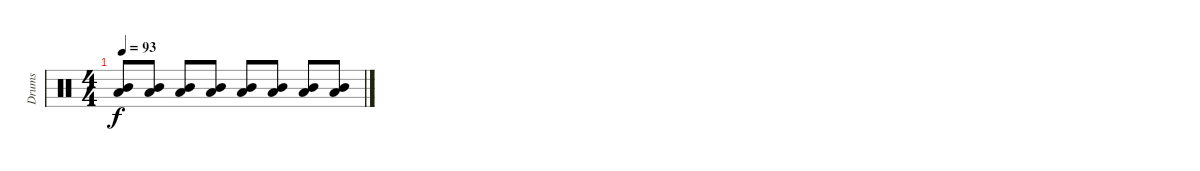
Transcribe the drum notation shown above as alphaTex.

\track ("Drums" "Drums") {instrument percussion}
\staff {score}
\articulation defaults
\ts (4 4)
\tempo 93
\clef neutral
\ks c
("Mid Tom (hit)" "Low Tom (hit)").8{dy f} ("Mid Tom (hit)" "Low Tom (hit)").8 ("Mid Tom (hit)" "Low Tom (hit)").8 ("Mid Tom (hit)" "Low Tom (hit)").8 ("Mid Tom (hit)" "Low Tom (hit)").8 ("Mid Tom (hit)" "Low Tom (hit)").8 ("Mid Tom (hit)" "Low Tom (hit)").8 ("Mid Tom (hit)" "Low Tom (hit)").8
